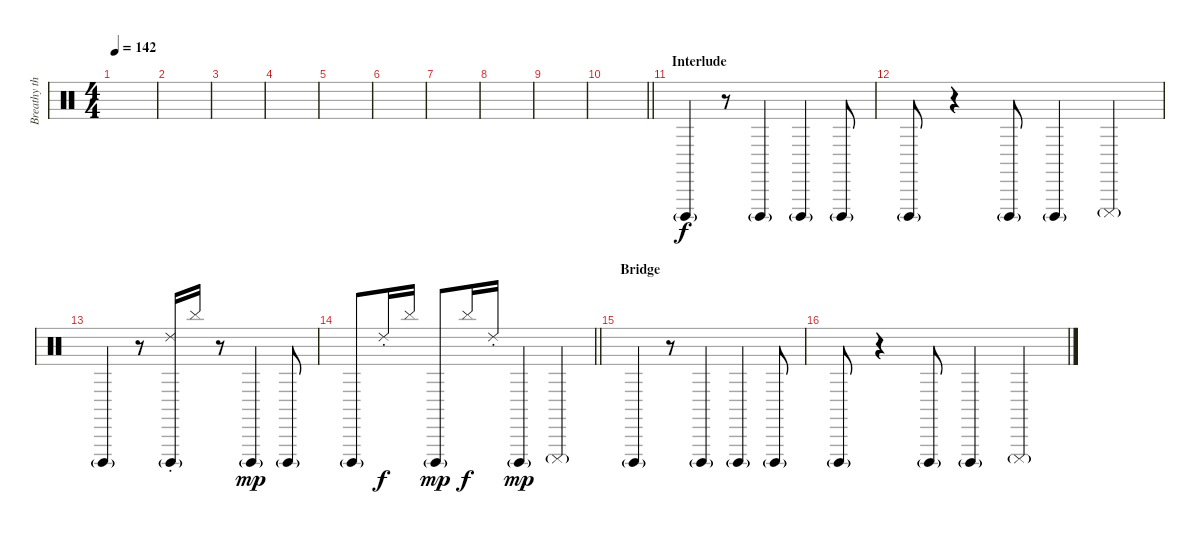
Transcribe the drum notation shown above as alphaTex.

\track ("Breathy things" "Breathy th") {instrument percussion}
\staff {score}
\articulation defaults
\ts (4 4)
\tempo 142
\clef neutral
\ks c
|
|
|
|
|
|
|
|
|
\barLineRight lightlight
|
\section ("" "Interlude")
"Cuica (open)"{g}.4 r.8 "Cuica (open)"{g}.4 "Cuica (open)"{g}.4 "Cuica (open)"{g}.8 |
"Cuica (open)"{g}.8 r.4 "Cuica (open)"{g}.8 "Cuica (open)"{g}.4 "Cuica (mute)"{g}.4 |
"Cuica (open)"{g}.4 r.8 ("Cuica (open)"{g} "Ride (choke) 2").16 "Cymbal (hit)".16{dy f} r.8 "Cuica (open)"{g}.4{dy mp} "Cuica (open)"{g}.8 |
\barLineRight lightlight "Cuica (open)"{g}.8 "Ride (choke) 2".16{dy f} "Cymbal (hit)".16 "Cuica (open)"{g}.8{dy mp} "Cymbal (hit)".16{dy f} "Ride (choke) 2".16 "Cuica (open)"{g}.4{dy mp} "Cuica (mute)"{g}.4
|
\section ("" "Bridge")
"Cuica (open)"{g}.4 r.8 "Cuica (open)"{g}.4 "Cuica (open)"{g}.4 "Cuica (open)"{g}.8 |
"Cuica (open)"{g}.8 r.4 "Cuica (open)"{g}.8 "Cuica (open)"{g}.4 "Cuica (mute)"{g}.4
